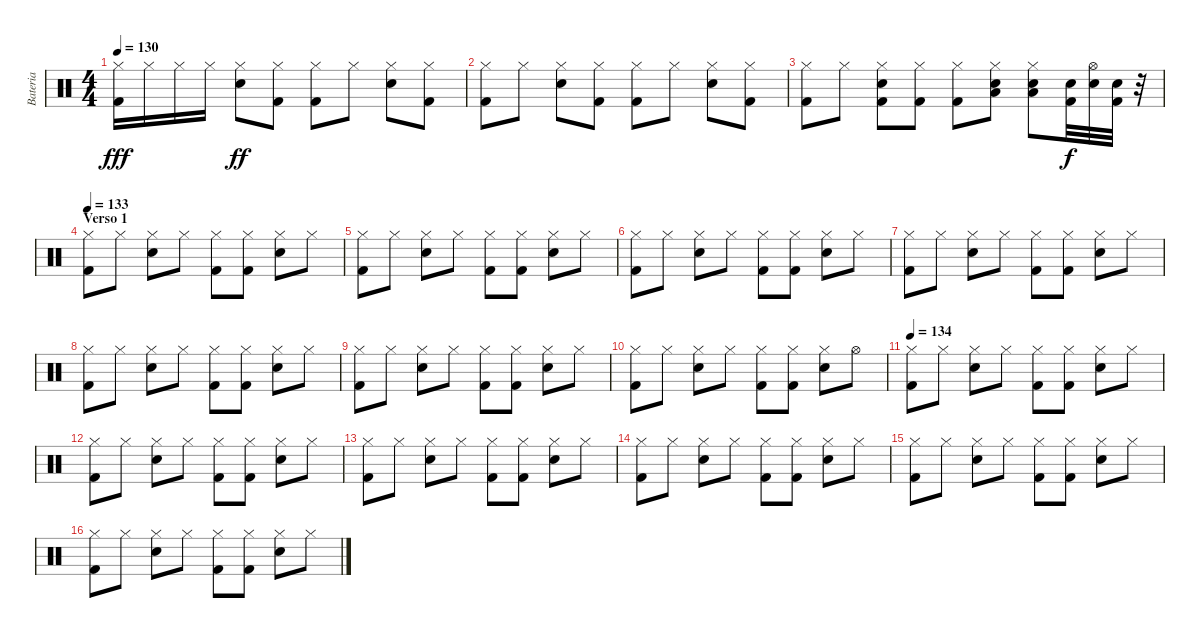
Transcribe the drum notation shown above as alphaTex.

\track ("Bateria" "Bateria") {instrument percussion}
\staff {score}
\articulation defaults
\ts (4 4)
\tempo 130
\clef neutral
\ks c
("Hi-Hat (closed)" "Kick (hit) 2").16{dy fff} "Hi-Hat (closed)".16 "Hi-Hat (closed)".16 "Hi-Hat (closed)".16 ("Hi-Hat (closed)" "Snare (hit) 2").8{dy ff} ("Hi-Hat (closed)" "Kick (hit) 2").8 ("Hi-Hat (closed)" "Kick (hit) 2").8 "Hi-Hat (closed)".8 ("Hi-Hat (closed)" "Snare (hit) 2").8 ("Hi-Hat (closed)" "Kick (hit) 2").8 |
("Hi-Hat (closed)" "Kick (hit) 2").8 "Hi-Hat (closed)".8 ("Hi-Hat (closed)" "Snare (hit) 2").8 ("Hi-Hat (closed)" "Kick (hit) 2").8 ("Hi-Hat (closed)" "Kick (hit) 2").8 "Hi-Hat (closed)".8 ("Hi-Hat (closed)" "Snare (hit) 2").8 ("Hi-Hat (closed)" "Kick (hit) 2").8 |
("Hi-Hat (closed)" "Kick (hit) 2").8 "Hi-Hat (closed)".8 ("Hi-Hat (closed)" "Snare (hit) 2" "Kick (hit) 2").8 ("Hi-Hat (closed)" "Kick (hit) 2").8 ("Hi-Hat (closed)" "Kick (hit) 2").8 ("Hi-Hat (closed)" "Snare (hit) 2" "Low Tom (hit)").8 ("Hi-Hat (closed)" "Snare (hit) 2" "Low Tom (hit)").8 ("Snare (hit) 2" "Kick (hit) 2").32{dy f} ("Hi-Hat (open)" "Snare (hit) 2").32 ("Snare (hit) 2" "Kick (hit) 2").32 r.32 |
\section ("" "Verso 1")
\tempo 133
("Hi-Hat (closed)" "Kick (hit) 2").8 "Hi-Hat (closed)".8 ("Hi-Hat (closed)" "Snare (hit) 2").8 "Hi-Hat (closed)".8 ("Hi-Hat (closed)" "Kick (hit) 2").8 ("Hi-Hat (closed)" "Kick (hit) 2").8 ("Hi-Hat (closed)" "Snare (hit) 2").8 "Hi-Hat (closed)".8 |
("Hi-Hat (closed)" "Kick (hit) 2").8 "Hi-Hat (closed)".8 ("Hi-Hat (closed)" "Snare (hit) 2").8 "Hi-Hat (closed)".8 ("Hi-Hat (closed)" "Kick (hit) 2").8 ("Hi-Hat (closed)" "Kick (hit) 2").8 ("Hi-Hat (closed)" "Snare (hit) 2").8 "Hi-Hat (closed)".8 |
("Hi-Hat (closed)" "Kick (hit) 2").8 "Hi-Hat (closed)".8 ("Hi-Hat (closed)" "Snare (hit) 2").8 "Hi-Hat (closed)".8 ("Hi-Hat (closed)" "Kick (hit) 2").8 ("Hi-Hat (closed)" "Kick (hit) 2").8 ("Hi-Hat (closed)" "Snare (hit) 2").8 "Hi-Hat (closed)".8 |
("Hi-Hat (closed)" "Kick (hit) 2").8 "Hi-Hat (closed)".8 ("Hi-Hat (closed)" "Snare (hit) 2").8 "Hi-Hat (closed)".8 ("Hi-Hat (closed)" "Kick (hit) 2").8 ("Hi-Hat (closed)" "Kick (hit) 2").8 ("Hi-Hat (closed)" "Snare (hit) 2").8 "Hi-Hat (closed)".8 |
("Hi-Hat (closed)" "Kick (hit) 2").8 "Hi-Hat (closed)".8 ("Hi-Hat (closed)" "Snare (hit) 2").8 "Hi-Hat (closed)".8 ("Hi-Hat (closed)" "Kick (hit) 2").8 ("Hi-Hat (closed)" "Kick (hit) 2").8 ("Hi-Hat (closed)" "Snare (hit) 2").8 "Hi-Hat (closed)".8 |
("Hi-Hat (closed)" "Kick (hit) 2").8 "Hi-Hat (closed)".8 ("Hi-Hat (closed)" "Snare (hit) 2").8 "Hi-Hat (closed)".8 ("Hi-Hat (closed)" "Kick (hit) 2").8 ("Hi-Hat (closed)" "Kick (hit) 2").8 ("Hi-Hat (closed)" "Snare (hit) 2").8 "Hi-Hat (closed)".8 |
("Hi-Hat (closed)" "Kick (hit) 2").8 "Hi-Hat (closed)".8 ("Hi-Hat (closed)" "Snare (hit) 2").8 "Hi-Hat (closed)".8 ("Hi-Hat (closed)" "Kick (hit) 2").8 ("Hi-Hat (closed)" "Kick (hit) 2").8 ("Hi-Hat (closed)" "Snare (hit) 2").8 "Hi-Hat (open)".8 |
\tempo 134
("Hi-Hat (closed)" "Kick (hit) 2").8 "Hi-Hat (closed)".8 ("Hi-Hat (closed)" "Snare (hit) 2").8 "Hi-Hat (closed)".8 ("Hi-Hat (closed)" "Kick (hit) 2").8 ("Hi-Hat (closed)" "Kick (hit) 2").8 ("Hi-Hat (closed)" "Snare (hit) 2").8 "Hi-Hat (closed)".8 |
("Hi-Hat (closed)" "Kick (hit) 2").8 "Hi-Hat (closed)".8 ("Hi-Hat (closed)" "Snare (hit) 2").8 "Hi-Hat (closed)".8 ("Hi-Hat (closed)" "Kick (hit) 2").8 ("Hi-Hat (closed)" "Kick (hit) 2").8 ("Hi-Hat (closed)" "Snare (hit) 2").8 "Hi-Hat (closed)".8 |
("Hi-Hat (closed)" "Kick (hit) 2").8 "Hi-Hat (closed)".8 ("Hi-Hat (closed)" "Snare (hit) 2").8 "Hi-Hat (closed)".8 ("Hi-Hat (closed)" "Kick (hit) 2").8 ("Hi-Hat (closed)" "Kick (hit) 2").8 ("Hi-Hat (closed)" "Snare (hit) 2").8 "Hi-Hat (closed)".8 |
("Hi-Hat (closed)" "Kick (hit) 2").8 "Hi-Hat (closed)".8 ("Hi-Hat (closed)" "Snare (hit) 2").8 "Hi-Hat (closed)".8 ("Hi-Hat (closed)" "Kick (hit) 2").8 ("Hi-Hat (closed)" "Kick (hit) 2").8 ("Hi-Hat (closed)" "Snare (hit) 2").8 "Hi-Hat (closed)".8 |
("Hi-Hat (closed)" "Kick (hit) 2").8 "Hi-Hat (closed)".8 ("Hi-Hat (closed)" "Snare (hit) 2").8 "Hi-Hat (closed)".8 ("Hi-Hat (closed)" "Kick (hit) 2").8 ("Hi-Hat (closed)" "Kick (hit) 2").8 ("Hi-Hat (closed)" "Snare (hit) 2").8 "Hi-Hat (closed)".8 |
("Hi-Hat (closed)" "Kick (hit) 2").8 "Hi-Hat (closed)".8 ("Hi-Hat (closed)" "Snare (hit) 2").8 "Hi-Hat (closed)".8 ("Hi-Hat (closed)" "Kick (hit) 2").8 ("Hi-Hat (closed)" "Kick (hit) 2").8 ("Hi-Hat (closed)" "Snare (hit) 2").8 "Hi-Hat (closed)".8
